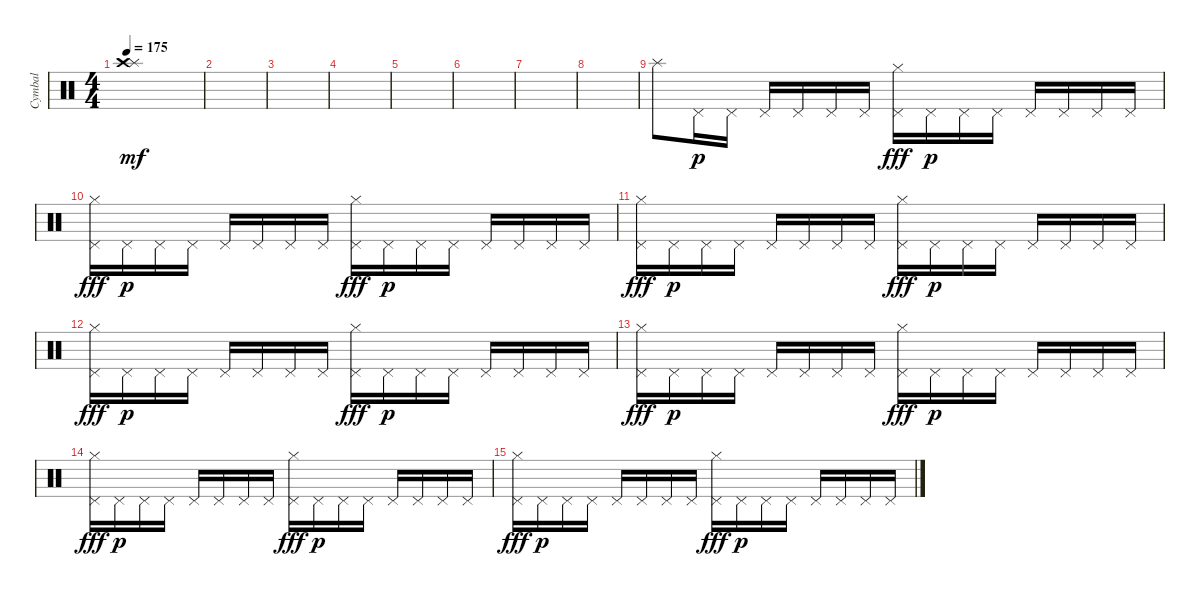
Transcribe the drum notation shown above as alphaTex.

\track ("Cymbal" "Cymbal") {instrument percussion}
\staff {score}
\articulation defaults
\ts (4 4)
\tempo 175
\clef neutral
\ks c
("Splash (hit)" "Crash high (hit)").1{dy mf} |
|
|
|
|
|
|
|
"Splash (hit)".8 "Pedal Hi-Hat (hit)".16{dy p} "Pedal Hi-Hat (hit)".16 "Pedal Hi-Hat (hit)".16 "Pedal Hi-Hat (hit)".16 "Pedal Hi-Hat (hit)".16 "Pedal Hi-Hat (hit)".16 ("Pedal Hi-Hat (hit)" "Hi-Hat (closed)").16{dy fff} "Pedal Hi-Hat (hit)".16{dy p} "Pedal Hi-Hat (hit)".16 "Pedal Hi-Hat (hit)".16 "Pedal Hi-Hat (hit)".16 "Pedal Hi-Hat (hit)".16 "Pedal Hi-Hat (hit)".16 "Pedal Hi-Hat (hit)".16 |
("Pedal Hi-Hat (hit)" "Hi-Hat (closed)").16{dy fff} "Pedal Hi-Hat (hit)".16{dy p} "Pedal Hi-Hat (hit)".16 "Pedal Hi-Hat (hit)".16 "Pedal Hi-Hat (hit)".16 "Pedal Hi-Hat (hit)".16 "Pedal Hi-Hat (hit)".16 "Pedal Hi-Hat (hit)".16 ("Pedal Hi-Hat (hit)" "Hi-Hat (closed)").16{dy fff} "Pedal Hi-Hat (hit)".16{dy p} "Pedal Hi-Hat (hit)".16 "Pedal Hi-Hat (hit)".16 "Pedal Hi-Hat (hit)".16 "Pedal Hi-Hat (hit)".16 "Pedal Hi-Hat (hit)".16 "Pedal Hi-Hat (hit)".16 |
("Pedal Hi-Hat (hit)" "Hi-Hat (closed)").16{dy fff} "Pedal Hi-Hat (hit)".16{dy p} "Pedal Hi-Hat (hit)".16 "Pedal Hi-Hat (hit)".16 "Pedal Hi-Hat (hit)".16 "Pedal Hi-Hat (hit)".16 "Pedal Hi-Hat (hit)".16 "Pedal Hi-Hat (hit)".16 ("Pedal Hi-Hat (hit)" "Hi-Hat (closed)").16{dy fff} "Pedal Hi-Hat (hit)".16{dy p} "Pedal Hi-Hat (hit)".16 "Pedal Hi-Hat (hit)".16 "Pedal Hi-Hat (hit)".16 "Pedal Hi-Hat (hit)".16 "Pedal Hi-Hat (hit)".16 "Pedal Hi-Hat (hit)".16 |
("Pedal Hi-Hat (hit)" "Hi-Hat (closed)").16{dy fff} "Pedal Hi-Hat (hit)".16{dy p} "Pedal Hi-Hat (hit)".16 "Pedal Hi-Hat (hit)".16 "Pedal Hi-Hat (hit)".16 "Pedal Hi-Hat (hit)".16 "Pedal Hi-Hat (hit)".16 "Pedal Hi-Hat (hit)".16 ("Pedal Hi-Hat (hit)" "Hi-Hat (closed)").16{dy fff} "Pedal Hi-Hat (hit)".16{dy p} "Pedal Hi-Hat (hit)".16 "Pedal Hi-Hat (hit)".16 "Pedal Hi-Hat (hit)".16 "Pedal Hi-Hat (hit)".16 "Pedal Hi-Hat (hit)".16 "Pedal Hi-Hat (hit)".16 |
("Pedal Hi-Hat (hit)" "Hi-Hat (closed)").16{dy fff} "Pedal Hi-Hat (hit)".16{dy p} "Pedal Hi-Hat (hit)".16 "Pedal Hi-Hat (hit)".16 "Pedal Hi-Hat (hit)".16 "Pedal Hi-Hat (hit)".16 "Pedal Hi-Hat (hit)".16 "Pedal Hi-Hat (hit)".16 ("Pedal Hi-Hat (hit)" "Hi-Hat (closed)").16{dy fff} "Pedal Hi-Hat (hit)".16{dy p} "Pedal Hi-Hat (hit)".16 "Pedal Hi-Hat (hit)".16 "Pedal Hi-Hat (hit)".16 "Pedal Hi-Hat (hit)".16 "Pedal Hi-Hat (hit)".16 "Pedal Hi-Hat (hit)".16 |
("Pedal Hi-Hat (hit)" "Hi-Hat (closed)").16{dy fff} "Pedal Hi-Hat (hit)".16{dy p} "Pedal Hi-Hat (hit)".16 "Pedal Hi-Hat (hit)".16 "Pedal Hi-Hat (hit)".16 "Pedal Hi-Hat (hit)".16 "Pedal Hi-Hat (hit)".16 "Pedal Hi-Hat (hit)".16 ("Pedal Hi-Hat (hit)" "Hi-Hat (closed)").16{dy fff} "Pedal Hi-Hat (hit)".16{dy p} "Pedal Hi-Hat (hit)".16 "Pedal Hi-Hat (hit)".16 "Pedal Hi-Hat (hit)".16 "Pedal Hi-Hat (hit)".16 "Pedal Hi-Hat (hit)".16 "Pedal Hi-Hat (hit)".16 |
("Pedal Hi-Hat (hit)" "Hi-Hat (closed)").16{dy fff} "Pedal Hi-Hat (hit)".16{dy p} "Pedal Hi-Hat (hit)".16 "Pedal Hi-Hat (hit)".16 "Pedal Hi-Hat (hit)".16 "Pedal Hi-Hat (hit)".16 "Pedal Hi-Hat (hit)".16 "Pedal Hi-Hat (hit)".16 ("Pedal Hi-Hat (hit)" "Hi-Hat (closed)").16{dy fff} "Pedal Hi-Hat (hit)".16{dy p} "Pedal Hi-Hat (hit)".16 "Pedal Hi-Hat (hit)".16 "Pedal Hi-Hat (hit)".16 "Pedal Hi-Hat (hit)".16 "Pedal Hi-Hat (hit)".16 "Pedal Hi-Hat (hit)".16
